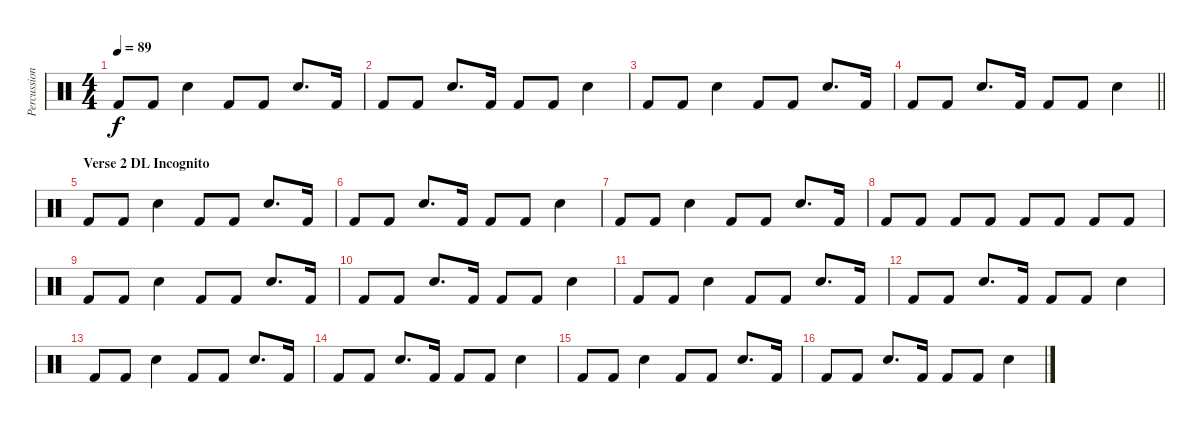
\track ("Percussion" "Percussion") {instrument percussion}
\staff {score}
\articulation defaults
\ts (4 4)
\tempo 89
\clef neutral
\ks c "Kick (hit) 2".8{dy f} "Kick (hit) 2".8 "Snare (hit) 2".4 "Kick (hit) 2".8 "Kick (hit) 2".8 "Snare (hit) 2".8{d} "Kick (hit) 2".16
|
"Kick (hit) 2".8 "Kick (hit) 2".8 "Snare (hit) 2".8{d} "Kick (hit) 2".16 "Kick (hit) 2".8 "Kick (hit) 2".8 "Snare (hit) 2".4 |
"Kick (hit) 2".8 "Kick (hit) 2".8 "Snare (hit) 2".4 "Kick (hit) 2".8 "Kick (hit) 2".8 "Snare (hit) 2".8{d} "Kick (hit) 2".16 |
\barLineRight lightlight "Kick (hit) 2".8 "Kick (hit) 2".8 "Snare (hit) 2".8{d} "Kick (hit) 2".16 "Kick (hit) 2".8 "Kick (hit) 2".8 "Snare (hit) 2".4
|
\section ("" "Verse 2 DL Incognito")
"Kick (hit) 2".8 "Kick (hit) 2".8 "Snare (hit) 2".4 "Kick (hit) 2".8 "Kick (hit) 2".8 "Snare (hit) 2".8{d} "Kick (hit) 2".16 |
"Kick (hit) 2".8 "Kick (hit) 2".8 "Snare (hit) 2".8{d} "Kick (hit) 2".16 "Kick (hit) 2".8 "Kick (hit) 2".8 "Snare (hit) 2".4 |
"Kick (hit) 2".8 "Kick (hit) 2".8 "Snare (hit) 2".4 "Kick (hit) 2".8 "Kick (hit) 2".8 "Snare (hit) 2".8{d} "Kick (hit) 2".16 |
"Kick (hit) 2".8 "Kick (hit) 2".8 "Kick (hit) 2".8 "Kick (hit) 2".8 "Kick (hit) 2".8 "Kick (hit) 2".8 "Kick (hit) 2".8 "Kick (hit) 2".8 |
"Kick (hit) 2".8 "Kick (hit) 2".8 "Snare (hit) 2".4 "Kick (hit) 2".8 "Kick (hit) 2".8 "Snare (hit) 2".8{d} "Kick (hit) 2".16 |
"Kick (hit) 2".8 "Kick (hit) 2".8 "Snare (hit) 2".8{d} "Kick (hit) 2".16 "Kick (hit) 2".8 "Kick (hit) 2".8 "Snare (hit) 2".4 |
"Kick (hit) 2".8 "Kick (hit) 2".8 "Snare (hit) 2".4 "Kick (hit) 2".8 "Kick (hit) 2".8 "Snare (hit) 2".8{d} "Kick (hit) 2".16 |
"Kick (hit) 2".8 "Kick (hit) 2".8 "Snare (hit) 2".8{d} "Kick (hit) 2".16 "Kick (hit) 2".8 "Kick (hit) 2".8 "Snare (hit) 2".4 |
"Kick (hit) 2".8 "Kick (hit) 2".8 "Snare (hit) 2".4 "Kick (hit) 2".8 "Kick (hit) 2".8 "Snare (hit) 2".8{d} "Kick (hit) 2".16 |
"Kick (hit) 2".8 "Kick (hit) 2".8 "Snare (hit) 2".8{d} "Kick (hit) 2".16 "Kick (hit) 2".8 "Kick (hit) 2".8 "Snare (hit) 2".4 |
"Kick (hit) 2".8 "Kick (hit) 2".8 "Snare (hit) 2".4 "Kick (hit) 2".8 "Kick (hit) 2".8 "Snare (hit) 2".8{d} "Kick (hit) 2".16 |
"Kick (hit) 2".8 "Kick (hit) 2".8 "Snare (hit) 2".8{d} "Kick (hit) 2".16 "Kick (hit) 2".8 "Kick (hit) 2".8 "Snare (hit) 2".4
